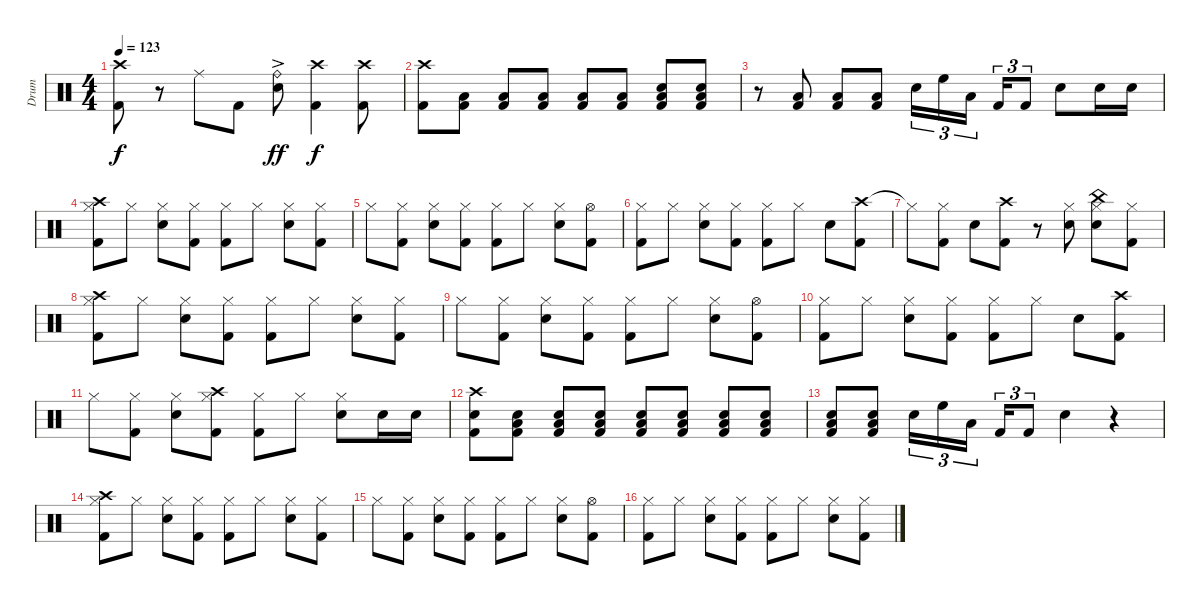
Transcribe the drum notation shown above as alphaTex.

\track ("Drum" "Drum") {instrument percussion}
\staff {score}
\articulation defaults
\ts (4 4)
\tempo 123
\clef neutral
\ks c
("Crash high (hit)" "Kick (hit) 2").8{dy f} r.8 "Ride (middle)".8 "Kick (hit) 2".8 ("Ride (bell)" "Electric Snare (hit)"{ac}).8{dy ff} ("Crash high (hit)" "Kick (hit) 2").4{dy f} ("Crash high (hit)" "Kick (hit) 2").8 |
("Crash high (hit)" "Kick (hit) 2").8 ("Low Floor Tom (hit)" "Kick (hit) 2").8 ("Low Floor Tom (hit)" "Kick (hit) 2").8 ("Low Floor Tom (hit)" "Kick (hit) 2").8 ("Low Floor Tom (hit)" "Kick (hit) 2").8 ("Low Floor Tom (hit)" "Kick (hit) 2").8 ("Low Floor Tom (hit)" "Electric Snare (hit)" "Kick (hit) 2").8 ("Low Floor Tom (hit)" "Electric Snare (hit)" "Kick (hit) 2").8 |
r.8 ("Low Floor Tom (hit)" "Kick (hit) 2").8 ("Low Floor Tom (hit)" "Kick (hit) 2").8 ("Low Floor Tom (hit)" "Kick (hit) 2").8 "Electric Snare (hit)".16{tu (3 2)} "High Floor Tom (hit)".16{tu (3 2)} "Low Tom (hit)".16{tu (3 2) beam splitsecondary} "Kick (hit) 2".16{tu (3 2)} "Kick (hit) 2".8{tu (3 2)} "Electric Snare (hit)".8 "Electric Snare (hit)".16 "Electric Snare (hit)".16 |
("Crash high (hit)" "Hi-Hat (closed)" "Kick (hit) 2").8 "Hi-Hat (closed)".8 ("Hi-Hat (closed)" "Electric Snare (hit)").8 ("Hi-Hat (closed)" "Kick (hit) 2").8 ("Hi-Hat (closed)" "Kick (hit) 2").8 "Hi-Hat (closed)".8 ("Hi-Hat (closed)" "Electric Snare (hit)").8 ("Hi-Hat (closed)" "Kick (hit) 2").8 |
"Hi-Hat (closed)".8 ("Hi-Hat (closed)" "Kick (hit) 2").8 ("Hi-Hat (closed)" "Electric Snare (hit)").8 ("Hi-Hat (closed)" "Kick (hit) 2").8 ("Hi-Hat (closed)" "Kick (hit) 2").8 "Hi-Hat (closed)".8 ("Hi-Hat (closed)" "Electric Snare (hit)").8 ("Hi-Hat (open)" "Kick (hit) 2").8 |
("Hi-Hat (closed)" "Kick (hit) 2").8 "Hi-Hat (closed)".8 ("Hi-Hat (closed)" "Electric Snare (hit)").8 ("Hi-Hat (closed)" "Kick (hit) 2").8 ("Hi-Hat (closed)" "Kick (hit) 2").8 "Hi-Hat (closed)".8 "Electric Snare (hit)".8 ("Crash high (hit)" "Kick (hit) 2").8 |
"Hi-Hat (closed)"{t}.8 ("Hi-Hat (closed)" "Kick (hit) 2").8 "Electric Snare (hit)".8 ("Crash high (hit)" "Kick (hit) 2").8 r.8 ("Hi-Hat (closed)" "Electric Snare (hit)").8 ("China (hit)" "Hi-Hat (closed)" "Electric Snare (hit)").8 ("Hi-Hat (closed)" "Kick (hit) 2").8 |
("Crash high (hit)" "Hi-Hat (closed)" "Kick (hit) 2").8 "Hi-Hat (closed)".8 ("Hi-Hat (closed)" "Electric Snare (hit)").8 ("Hi-Hat (closed)" "Kick (hit) 2").8 ("Hi-Hat (closed)" "Kick (hit) 2").8 "Hi-Hat (closed)".8 ("Hi-Hat (closed)" "Electric Snare (hit)").8 ("Hi-Hat (closed)" "Kick (hit) 2").8 |
"Hi-Hat (closed)".8 ("Hi-Hat (closed)" "Kick (hit) 2").8 ("Hi-Hat (closed)" "Electric Snare (hit)").8 ("Hi-Hat (closed)" "Kick (hit) 2").8 ("Hi-Hat (closed)" "Kick (hit) 2").8 "Hi-Hat (closed)".8 ("Hi-Hat (closed)" "Electric Snare (hit)").8 ("Hi-Hat (open)" "Kick (hit) 2").8 |
("Hi-Hat (closed)" "Kick (hit) 2").8 "Hi-Hat (closed)".8 ("Hi-Hat (closed)" "Electric Snare (hit)").8 ("Hi-Hat (closed)" "Kick (hit) 2").8 ("Hi-Hat (closed)" "Kick (hit) 2").8 "Hi-Hat (closed)".8 "Electric Snare (hit)".8 ("Crash high (hit)" "Kick (hit) 2").8 |
"Hi-Hat (closed)".8 ("Hi-Hat (closed)" "Kick (hit) 2").8 ("Hi-Hat (closed)" "Electric Snare (hit)").8 ("Crash high (hit)" "Hi-Hat (closed)" "Kick (hit) 2").8 ("Hi-Hat (closed)" "Kick (hit) 2").8 "Hi-Hat (closed)".8 ("Hi-Hat (closed)" "Electric Snare (hit)").8 "Electric Snare (hit)".16 "Electric Snare (hit)".16 |
("Crash high (hit)" "Electric Snare (hit)" "Kick (hit) 2").8 ("Low Floor Tom (hit)" "Electric Snare (hit)" "Kick (hit) 2").8 ("Low Floor Tom (hit)" "Electric Snare (hit)" "Kick (hit) 2").8 ("Low Floor Tom (hit)" "Electric Snare (hit)" "Kick (hit) 2").8 ("Low Floor Tom (hit)" "Electric Snare (hit)" "Kick (hit) 2").8 ("Low Floor Tom (hit)" "Electric Snare (hit)" "Kick (hit) 2").8 ("Low Floor Tom (hit)" "Electric Snare (hit)" "Kick (hit) 2").8 ("Low Floor Tom (hit)" "Electric Snare (hit)" "Kick (hit) 2").8 |
("Low Floor Tom (hit)" "Electric Snare (hit)" "Kick (hit) 2").8 ("Low Floor Tom (hit)" "Electric Snare (hit)" "Kick (hit) 2").8 "Electric Snare (hit)".16{tu (3 2)} "High Floor Tom (hit)".16{tu (3 2)} "Low Tom (hit)".16{tu (3 2) beam splitsecondary} "Kick (hit) 2".16{tu (3 2)} "Kick (hit) 2".8{tu (3 2)} "Electric Snare (hit)".4 r.4 |
("Crash high (hit)" "Hi-Hat (closed)" "Kick (hit) 2").8 "Hi-Hat (closed)".8 ("Hi-Hat (closed)" "Electric Snare (hit)").8 ("Hi-Hat (closed)" "Kick (hit) 2").8 ("Hi-Hat (closed)" "Kick (hit) 2").8 "Hi-Hat (closed)".8 ("Hi-Hat (closed)" "Electric Snare (hit)").8 ("Hi-Hat (closed)" "Kick (hit) 2").8 |
"Hi-Hat (closed)".8 ("Hi-Hat (closed)" "Kick (hit) 2").8 ("Hi-Hat (closed)" "Electric Snare (hit)").8 ("Hi-Hat (closed)" "Kick (hit) 2").8 ("Hi-Hat (closed)" "Kick (hit) 2").8 "Hi-Hat (closed)".8 ("Hi-Hat (closed)" "Electric Snare (hit)").8 ("Hi-Hat (open)" "Kick (hit) 2").8 |
("Hi-Hat (closed)" "Kick (hit) 2").8 "Hi-Hat (closed)".8 ("Hi-Hat (closed)" "Electric Snare (hit)").8 ("Hi-Hat (closed)" "Kick (hit) 2").8 ("Hi-Hat (closed)" "Kick (hit) 2").8 "Hi-Hat (closed)".8 ("Hi-Hat (closed)" "Electric Snare (hit)").8 ("Hi-Hat (closed)" "Kick (hit) 2").8
